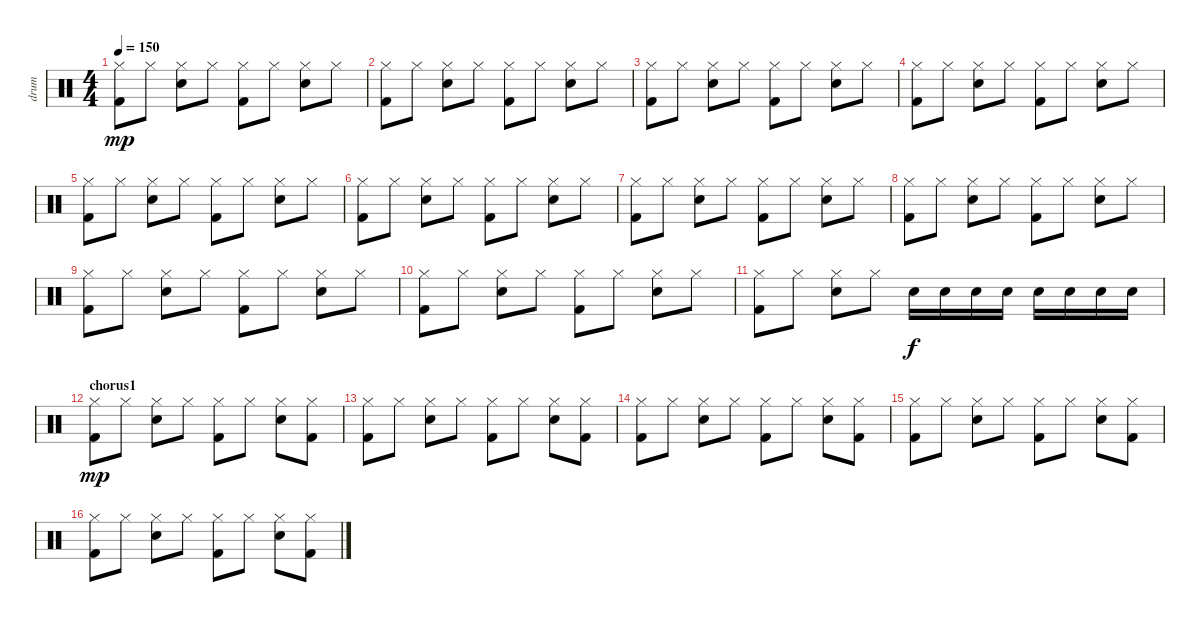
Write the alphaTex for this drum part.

\track ("drum" "drum") {instrument percussion}
\staff {score}
\articulation defaults
\ts (4 4)
\tempo 150
\clef neutral
\ks c
("Hi-Hat (closed)" "Kick (hit) 2").8{dy mp} "Hi-Hat (closed)".8 ("Hi-Hat (closed)" "Electric Snare (hit)").8 "Hi-Hat (closed)".8 ("Hi-Hat (closed)" "Kick (hit) 2").8 "Hi-Hat (closed)".8 ("Hi-Hat (closed)" "Electric Snare (hit)").8 "Hi-Hat (closed)".8 |
("Hi-Hat (closed)" "Kick (hit) 2").8 "Hi-Hat (closed)".8 ("Hi-Hat (closed)" "Electric Snare (hit)").8 "Hi-Hat (closed)".8 ("Hi-Hat (closed)" "Kick (hit) 2").8 "Hi-Hat (closed)".8 ("Hi-Hat (closed)" "Electric Snare (hit)").8 "Hi-Hat (closed)".8 |
("Hi-Hat (closed)" "Kick (hit) 2").8 "Hi-Hat (closed)".8 ("Hi-Hat (closed)" "Electric Snare (hit)").8 "Hi-Hat (closed)".8 ("Hi-Hat (closed)" "Kick (hit) 2").8 "Hi-Hat (closed)".8 ("Hi-Hat (closed)" "Electric Snare (hit)").8 "Hi-Hat (closed)".8 |
("Hi-Hat (closed)" "Kick (hit) 2").8 "Hi-Hat (closed)".8 ("Hi-Hat (closed)" "Electric Snare (hit)").8 "Hi-Hat (closed)".8 ("Hi-Hat (closed)" "Kick (hit) 2").8 "Hi-Hat (closed)".8 ("Hi-Hat (closed)" "Electric Snare (hit)").8 "Hi-Hat (closed)".8 |
("Hi-Hat (closed)" "Kick (hit) 2").8 "Hi-Hat (closed)".8 ("Hi-Hat (closed)" "Electric Snare (hit)").8 "Hi-Hat (closed)".8 ("Hi-Hat (closed)" "Kick (hit) 2").8 "Hi-Hat (closed)".8 ("Hi-Hat (closed)" "Electric Snare (hit)").8 "Hi-Hat (closed)".8 |
("Hi-Hat (closed)" "Kick (hit) 2").8 "Hi-Hat (closed)".8 ("Hi-Hat (closed)" "Electric Snare (hit)").8 "Hi-Hat (closed)".8 ("Hi-Hat (closed)" "Kick (hit) 2").8 "Hi-Hat (closed)".8 ("Hi-Hat (closed)" "Electric Snare (hit)").8 "Hi-Hat (closed)".8 |
("Hi-Hat (closed)" "Kick (hit) 2").8 "Hi-Hat (closed)".8 ("Hi-Hat (closed)" "Electric Snare (hit)").8 "Hi-Hat (closed)".8 ("Hi-Hat (closed)" "Kick (hit) 2").8 "Hi-Hat (closed)".8 ("Hi-Hat (closed)" "Electric Snare (hit)").8 "Hi-Hat (closed)".8 |
("Hi-Hat (closed)" "Kick (hit) 2").8 "Hi-Hat (closed)".8 ("Hi-Hat (closed)" "Electric Snare (hit)").8 "Hi-Hat (closed)".8 ("Hi-Hat (closed)" "Kick (hit) 2").8 "Hi-Hat (closed)".8 ("Hi-Hat (closed)" "Electric Snare (hit)").8 "Hi-Hat (closed)".8 |
("Hi-Hat (closed)" "Kick (hit) 2").8 "Hi-Hat (closed)".8 ("Hi-Hat (closed)" "Electric Snare (hit)").8 "Hi-Hat (closed)".8 ("Hi-Hat (closed)" "Kick (hit) 2").8 "Hi-Hat (closed)".8 ("Hi-Hat (closed)" "Electric Snare (hit)").8 "Hi-Hat (closed)".8 |
("Hi-Hat (closed)" "Kick (hit) 2").8 "Hi-Hat (closed)".8 ("Hi-Hat (closed)" "Electric Snare (hit)").8 "Hi-Hat (closed)".8 ("Hi-Hat (closed)" "Kick (hit) 2").8 "Hi-Hat (closed)".8 ("Hi-Hat (closed)" "Electric Snare (hit)").8 "Hi-Hat (closed)".8 |
("Hi-Hat (closed)" "Kick (hit) 2").8 "Hi-Hat (closed)".8 ("Hi-Hat (closed)" "Electric Snare (hit)").8 "Hi-Hat (closed)".8 "Electric Snare (hit)".16{dy f} "Electric Snare (hit)".16 "Electric Snare (hit)".16 "Electric Snare (hit)".16 "Electric Snare (hit)".16 "Electric Snare (hit)".16 "Electric Snare (hit)".16 "Electric Snare (hit)".16 |
\section ("" "chorus1")
("Hi-Hat (closed)" "Kick (hit) 2").8{dy mp} "Hi-Hat (closed)".8 ("Hi-Hat (closed)" "Electric Snare (hit)").8 "Hi-Hat (closed)".8 ("Hi-Hat (closed)" "Kick (hit) 2").8 "Hi-Hat (closed)".8 ("Hi-Hat (closed)" "Electric Snare (hit)").8 ("Hi-Hat (closed)" "Kick (hit) 2").8 |
("Hi-Hat (closed)" "Kick (hit) 2").8 "Hi-Hat (closed)".8 ("Hi-Hat (closed)" "Electric Snare (hit)").8 "Hi-Hat (closed)".8 ("Hi-Hat (closed)" "Kick (hit) 2").8 "Hi-Hat (closed)".8 ("Hi-Hat (closed)" "Electric Snare (hit)").8 ("Hi-Hat (closed)" "Kick (hit) 2").8 |
("Hi-Hat (closed)" "Kick (hit) 2").8 "Hi-Hat (closed)".8 ("Hi-Hat (closed)" "Electric Snare (hit)").8 "Hi-Hat (closed)".8 ("Hi-Hat (closed)" "Kick (hit) 2").8 "Hi-Hat (closed)".8 ("Hi-Hat (closed)" "Electric Snare (hit)").8 ("Hi-Hat (closed)" "Kick (hit) 2").8 |
("Hi-Hat (closed)" "Kick (hit) 2").8 "Hi-Hat (closed)".8 ("Hi-Hat (closed)" "Electric Snare (hit)").8 "Hi-Hat (closed)".8 ("Hi-Hat (closed)" "Kick (hit) 2").8 "Hi-Hat (closed)".8 ("Hi-Hat (closed)" "Electric Snare (hit)").8 ("Hi-Hat (closed)" "Kick (hit) 2").8 |
("Hi-Hat (closed)" "Kick (hit) 2").8 "Hi-Hat (closed)".8 ("Hi-Hat (closed)" "Electric Snare (hit)").8 "Hi-Hat (closed)".8 ("Hi-Hat (closed)" "Kick (hit) 2").8 "Hi-Hat (closed)".8 ("Hi-Hat (closed)" "Electric Snare (hit)").8 ("Hi-Hat (closed)" "Kick (hit) 2").8
